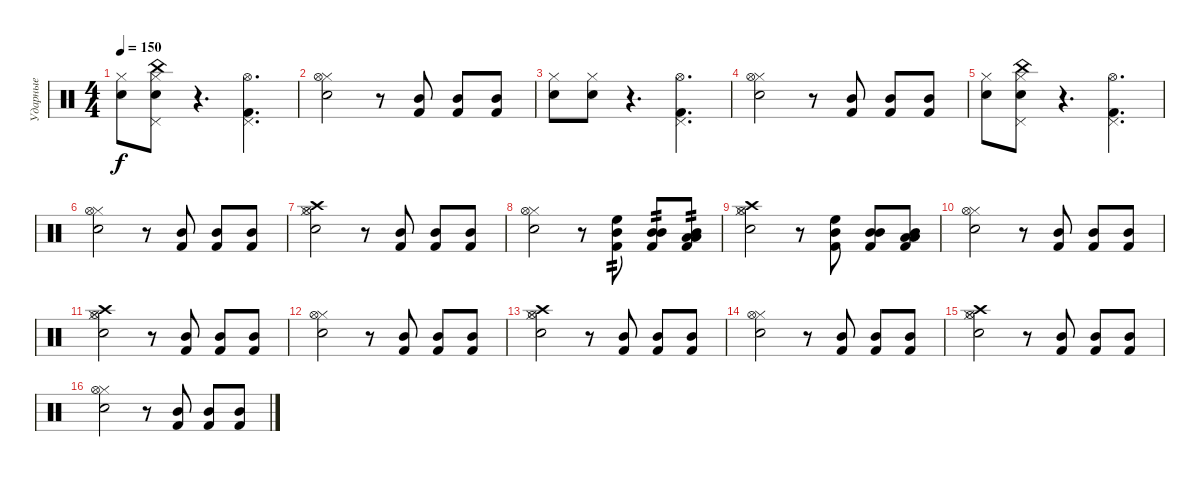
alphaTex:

\track ("Ударные" "Ударные") {instrument percussion}
\staff {score}
\articulation defaults
\ts (4 4)
\tempo 150
\clef neutral
\ks c
("Snare (hit) 2" "Hi-Hat (closed)").8{dy f} ("Snare (hit) 2" "Hi-Hat (closed)" "Pedal Hi-Hat (hit)" "China (hit)").8 r.4{d} ("Pedal Hi-Hat (hit)" "Kick (hit) 2" "Hi-Hat (open)").4{d} |
("Snare (hit) 2" "Hi-Hat (closed)" "Hi-Hat (open)").2 r.8 ("Mid Tom (hit)" "Kick (hit) 2").8 ("Mid Tom (hit)" "Kick (hit) 2").8 ("Mid Tom (hit)" "Kick (hit) 2").8 |
("Snare (hit) 2" "Hi-Hat (closed)").8 ("Snare (hit) 2" "Hi-Hat (closed)").8 r.4{d} ("Pedal Hi-Hat (hit)" "Kick (hit) 2" "Hi-Hat (open)").4{d} |
("Snare (hit) 2" "Hi-Hat (closed)" "Hi-Hat (open)").2 r.8 ("Mid Tom (hit)" "Kick (hit) 2").8 ("Mid Tom (hit)" "Kick (hit) 2").8 ("Mid Tom (hit)" "Kick (hit) 2").8 |
("Snare (hit) 2" "Hi-Hat (closed)").8 ("Snare (hit) 2" "Hi-Hat (closed)" "Pedal Hi-Hat (hit)" "China (hit)").8 r.4{d} ("Pedal Hi-Hat (hit)" "Kick (hit) 2" "Hi-Hat (open)").4{d} |
("Snare (hit) 2" "Hi-Hat (closed)" "Hi-Hat (open)").2 r.8 ("Mid Tom (hit)" "Kick (hit) 2").8 ("Mid Tom (hit)" "Kick (hit) 2").8 ("Mid Tom (hit)" "Kick (hit) 2").8 |
("Snare (hit) 2" "Hi-Hat (closed)" "Hi-Hat (open)" "Crash high (hit)").2 r.8 ("Mid Tom (hit)" "Kick (hit) 2").8 ("Mid Tom (hit)" "Kick (hit) 2").8 ("Mid Tom (hit)" "Kick (hit) 2").8 |
("Snare (hit) 2" "Hi-Hat (closed)" "Hi-Hat (open)").2 r.8 ("Mid Tom (hit)" "Kick (hit) 2" "High Floor Tom (hit)").8{tp 2} ("Mid Tom (hit)" "Kick (hit) 2" "Mid Tom (hit)").8{tp 2} ("Mid Tom (hit)" "Kick (hit) 2" "Low Tom (hit)" "Low Floor Tom (hit)").8{tp 2} |
("Snare (hit) 2" "Hi-Hat (closed)" "Hi-Hat (open)" "Crash high (hit)").2 r.8 ("Mid Tom (hit)" "Kick (hit) 2" "High Floor Tom (hit)").8 ("Mid Tom (hit)" "Kick (hit) 2" "Mid Tom (hit)").8 ("Mid Tom (hit)" "Kick (hit) 2" "Low Tom (hit)" "Low Floor Tom (hit)").8 |
("Snare (hit) 2" "Hi-Hat (closed)" "Hi-Hat (open)").2 r.8 ("Mid Tom (hit)" "Kick (hit) 2").8 ("Mid Tom (hit)" "Kick (hit) 2").8 ("Mid Tom (hit)" "Kick (hit) 2").8 |
("Snare (hit) 2" "Hi-Hat (closed)" "Hi-Hat (open)" "Crash high (hit)").2 r.8 ("Mid Tom (hit)" "Kick (hit) 2").8 ("Mid Tom (hit)" "Kick (hit) 2").8 ("Mid Tom (hit)" "Kick (hit) 2").8 |
("Snare (hit) 2" "Hi-Hat (closed)" "Hi-Hat (open)").2 r.8 ("Mid Tom (hit)" "Kick (hit) 2").8 ("Mid Tom (hit)" "Kick (hit) 2").8 ("Mid Tom (hit)" "Kick (hit) 2").8 |
("Snare (hit) 2" "Hi-Hat (closed)" "Hi-Hat (open)" "Crash high (hit)").2 r.8 ("Mid Tom (hit)" "Kick (hit) 2").8 ("Mid Tom (hit)" "Kick (hit) 2").8 ("Mid Tom (hit)" "Kick (hit) 2").8 |
("Snare (hit) 2" "Hi-Hat (closed)" "Hi-Hat (open)").2 r.8 ("Mid Tom (hit)" "Kick (hit) 2").8 ("Mid Tom (hit)" "Kick (hit) 2").8 ("Mid Tom (hit)" "Kick (hit) 2").8 |
("Snare (hit) 2" "Hi-Hat (closed)" "Hi-Hat (open)" "Crash high (hit)").2 r.8 ("Mid Tom (hit)" "Kick (hit) 2").8 ("Mid Tom (hit)" "Kick (hit) 2").8 ("Mid Tom (hit)" "Kick (hit) 2").8 |
("Snare (hit) 2" "Hi-Hat (closed)" "Hi-Hat (open)").2 r.8 ("Mid Tom (hit)" "Kick (hit) 2").8 ("Mid Tom (hit)" "Kick (hit) 2").8 ("Mid Tom (hit)" "Kick (hit) 2").8
